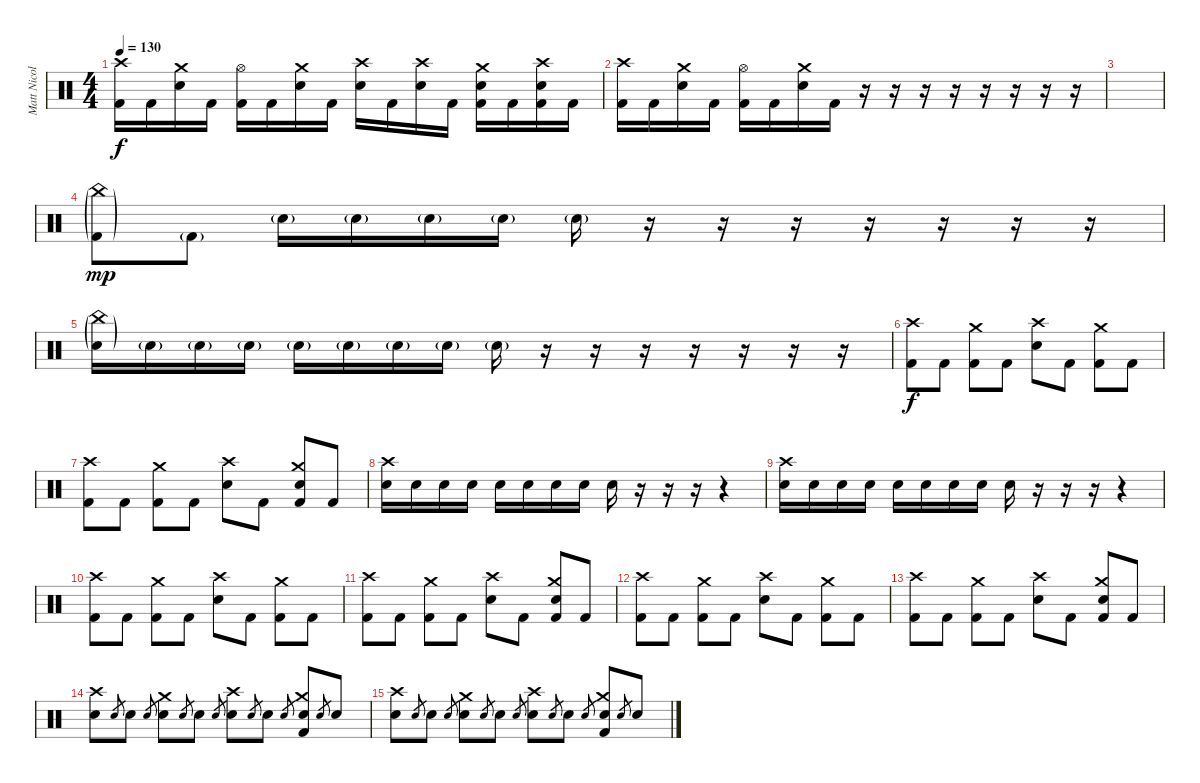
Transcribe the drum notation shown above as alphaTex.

\track ("Matt Nicols" "Matt Nicol") {instrument percussion}
\staff {score}
\articulation defaults
\ts (4 4)
\tempo 130
\clef neutral
\ks c
("Crash high (hit)" "Kick (hit) 2").16{dy f} "Kick (hit) 2".16 ("Crash medium (hit)" "Snare (hit) 2").16 "Kick (hit) 2".16 ("Hi-Hat (open)" "Kick (hit) 2").16 "Kick (hit) 2".16 ("Crash medium (hit)" "Snare (hit) 2").16 "Kick (hit) 2".16 ("Crash high (hit)" "Snare (hit) 2").16 "Kick (hit) 2".16 ("Crash high (hit)" "Snare (hit) 2").16 "Kick (hit) 2".16 ("Crash medium (hit)" "Snare (hit) 2" "Kick (hit) 2").16 "Kick (hit) 2".16 ("Crash high (hit)" "Snare (hit) 2" "Kick (hit) 2").16 "Kick (hit) 2".16 |
("Crash high (hit)" "Kick (hit) 2").16 "Kick (hit) 2".16 ("Crash medium (hit)" "Snare (hit) 2").16 "Kick (hit) 2".16 ("Hi-Hat (open)" "Kick (hit) 2").16 "Kick (hit) 2".16 ("Crash medium (hit)" "Snare (hit) 2").16 "Kick (hit) 2".16 r.16 r.16 r.16 r.16 r.16 r.16 r.16 r.16 |
|
("China (hit)"{g} "Kick (hit) 2"{g}).8{dy mp} "Kick (hit) 2"{g}.8 "Electric Snare (hit)"{g}.16 "Electric Snare (hit)"{g}.16 "Electric Snare (hit)"{g}.16 "Electric Snare (hit)"{g}.16 "Electric Snare (hit)"{g}.16 r.16 r.16 r.16 r.16 r.16 r.16 r.16 |
("China (hit)"{g} "Electric Snare (hit)"{g}).16 "Electric Snare (hit)"{g}.16 "Electric Snare (hit)"{g}.16 "Electric Snare (hit)"{g}.16 "Electric Snare (hit)"{g}.16 "Electric Snare (hit)"{g}.16 "Electric Snare (hit)"{g}.16 "Electric Snare (hit)"{g}.16 "Electric Snare (hit)"{g}.16 r.16 r.16 r.16 r.16 r.16 r.16 r.16 |
("Crash high (hit)" "Kick (hit) 2").8{dy f} "Kick (hit) 2".8 ("Crash medium (hit)" "Kick (hit) 2").8 "Kick (hit) 2".8 ("Crash high (hit)" "Snare (hit) 2").8 "Kick (hit) 2".8 ("Crash medium (hit)" "Kick (hit) 2").8 "Kick (hit) 2".8 |
("Crash high (hit)" "Kick (hit) 2").8 "Kick (hit) 2".8 ("Crash medium (hit)" "Kick (hit) 2").8 "Kick (hit) 2".8 ("Crash high (hit)" "Snare (hit) 2").8 "Kick (hit) 2".8 ("Crash medium (hit)" "Snare (hit) 2" "Kick (hit) 2").8 "Kick (hit) 2".8 |
("Crash high (hit)" "Snare (hit) 2").16 "Snare (hit) 2".16 "Snare (hit) 2".16 "Snare (hit) 2".16 "Snare (hit) 2".16 "Snare (hit) 2".16 "Snare (hit) 2".16 "Snare (hit) 2".16 "Snare (hit) 2".16 r.16 r.16 r.16 r.4 |
("Crash high (hit)" "Snare (hit) 2").16 "Snare (hit) 2".16 "Snare (hit) 2".16 "Snare (hit) 2".16 "Snare (hit) 2".16 "Snare (hit) 2".16 "Snare (hit) 2".16 "Snare (hit) 2".16 "Snare (hit) 2".16 r.16 r.16 r.16 r.4 |
("Crash high (hit)" "Kick (hit) 2").8 "Kick (hit) 2".8 ("Crash medium (hit)" "Kick (hit) 2").8 "Kick (hit) 2".8 ("Crash high (hit)" "Snare (hit) 2").8 "Kick (hit) 2".8 ("Crash medium (hit)" "Kick (hit) 2").8 "Kick (hit) 2".8 |
("Crash high (hit)" "Kick (hit) 2").8 "Kick (hit) 2".8 ("Crash medium (hit)" "Kick (hit) 2").8 "Kick (hit) 2".8 ("Crash high (hit)" "Snare (hit) 2").8 "Kick (hit) 2".8 ("Crash medium (hit)" "Snare (hit) 2" "Kick (hit) 2").8 "Kick (hit) 2".8 |
("Crash high (hit)" "Kick (hit) 2").8 "Kick (hit) 2".8 ("Crash medium (hit)" "Kick (hit) 2").8 "Kick (hit) 2".8 ("Crash high (hit)" "Snare (hit) 2").8 "Kick (hit) 2".8 ("Crash medium (hit)" "Kick (hit) 2").8 "Kick (hit) 2".8 |
("Crash high (hit)" "Kick (hit) 2").8 "Kick (hit) 2".8 ("Crash medium (hit)" "Kick (hit) 2").8 "Kick (hit) 2".8 ("Crash high (hit)" "Snare (hit) 2").8 "Kick (hit) 2".8 ("Crash medium (hit)" "Snare (hit) 2" "Kick (hit) 2").8 "Kick (hit) 2".8 |
("Crash high (hit)" "Snare (hit) 2").8 "Snare (hit) 2".8{gr} "Snare (hit) 2".8 "Snare (hit) 2".8{gr} ("Crash medium (hit)" "Snare (hit) 2").8 "Snare (hit) 2".8{gr} "Snare (hit) 2".8 "Snare (hit) 2".8{gr} ("Crash high (hit)" "Snare (hit) 2").8 "Snare (hit) 2".8{gr} "Snare (hit) 2".8 "Snare (hit) 2".8{gr} ("Crash medium (hit)" "Snare (hit) 2" "Kick (hit) 2").8 "Snare (hit) 2".8{gr} "Snare (hit) 2".8 |
("Crash high (hit)" "Snare (hit) 2").8 "Snare (hit) 2".8{gr} "Snare (hit) 2".8 "Snare (hit) 2".8{gr} ("Crash medium (hit)" "Snare (hit) 2").8 "Snare (hit) 2".8{gr} "Snare (hit) 2".8 "Snare (hit) 2".8{gr} ("Crash high (hit)" "Snare (hit) 2").8 "Snare (hit) 2".8{gr} "Snare (hit) 2".8 "Snare (hit) 2".8{gr} ("Crash medium (hit)" "Snare (hit) 2" "Kick (hit) 2").8 "Snare (hit) 2".8{gr} "Snare (hit) 2".8
